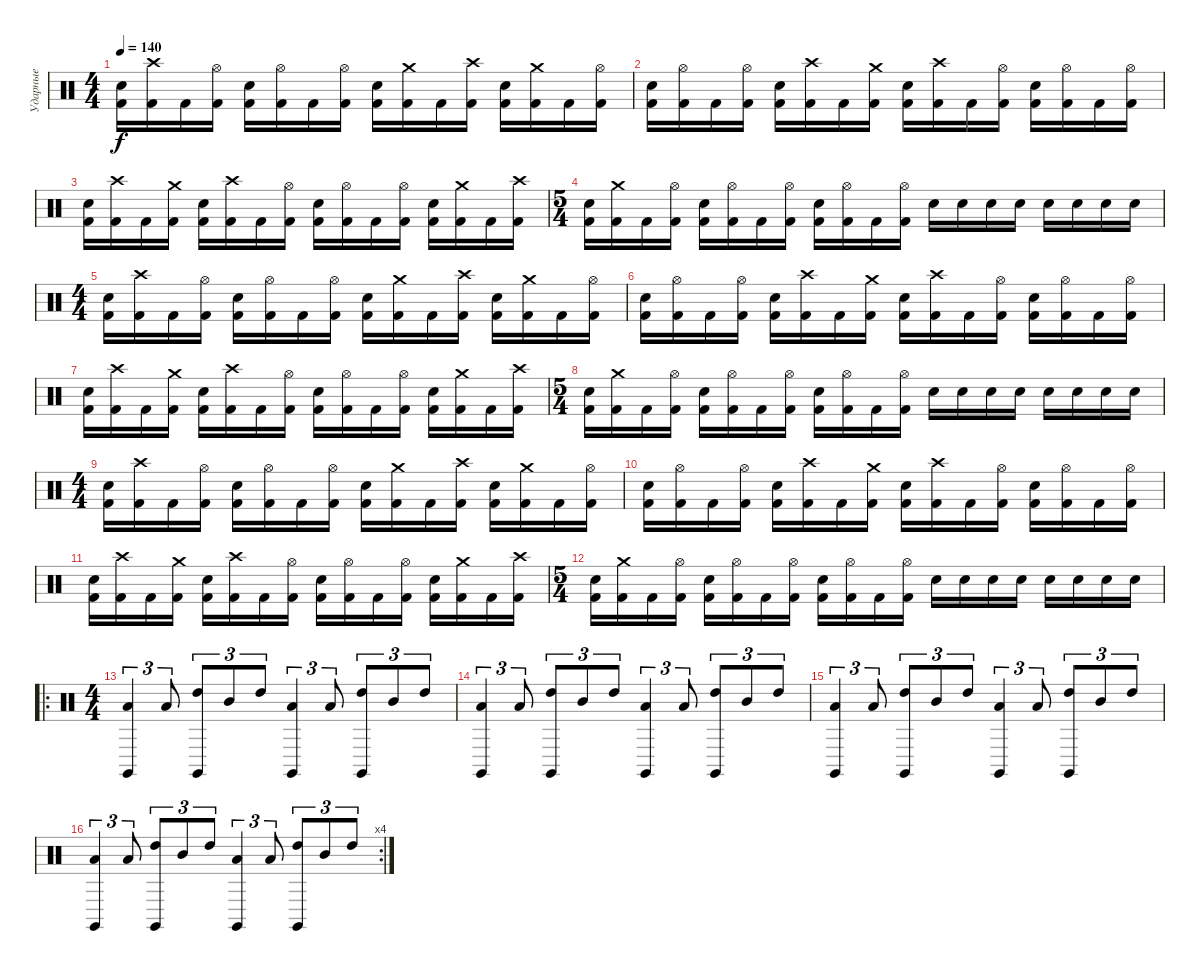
\track ("Ударные" "Ударные") {instrument percussion}
\staff {score}
\articulation defaults
\ts (4 4)
\tempo 140
\clef neutral
\ks c
("Electric Snare (hit)" "Kick (hit) 2").16{dy f} ("Crash high (hit)" "Kick (hit) 2").16 "Kick (hit) 2".16 ("Hi-Hat (open)" "Kick (hit) 2").16 ("Electric Snare (hit)" "Kick (hit) 2").16 ("Hi-Hat (open)" "Kick (hit) 2").16 "Kick (hit) 2".16 ("Hi-Hat (open)" "Kick (hit) 2").16 ("Electric Snare (hit)" "Kick (hit) 2").16 ("Crash medium (hit)" "Kick (hit) 2").16 "Kick (hit) 2".16 ("Crash high (hit)" "Kick (hit) 2").16 ("Electric Snare (hit)" "Kick (hit) 2").16 ("Crash medium (hit)" "Kick (hit) 2").16 "Kick (hit) 2".16 ("Hi-Hat (open)" "Kick (hit) 2").16 |
("Electric Snare (hit)" "Kick (hit) 2").16 ("Hi-Hat (open)" "Kick (hit) 2").16 "Kick (hit) 2".16 ("Hi-Hat (open)" "Kick (hit) 2").16 ("Electric Snare (hit)" "Kick (hit) 2").16 ("Crash high (hit)" "Kick (hit) 2").16 "Kick (hit) 2".16 ("Crash medium (hit)" "Kick (hit) 2").16 ("Electric Snare (hit)" "Kick (hit) 2").16 ("Crash high (hit)" "Kick (hit) 2").16 "Kick (hit) 2".16 ("Hi-Hat (open)" "Kick (hit) 2").16 ("Electric Snare (hit)" "Kick (hit) 2").16 ("Hi-Hat (open)" "Kick (hit) 2").16 "Kick (hit) 2".16 ("Hi-Hat (open)" "Kick (hit) 2").16 |
("Electric Snare (hit)" "Kick (hit) 2").16 ("Crash high (hit)" "Kick (hit) 2").16 "Kick (hit) 2".16 ("Crash medium (hit)" "Kick (hit) 2").16 ("Electric Snare (hit)" "Kick (hit) 2").16 ("Crash high (hit)" "Kick (hit) 2").16 "Kick (hit) 2".16 ("Hi-Hat (open)" "Kick (hit) 2").16 ("Electric Snare (hit)" "Kick (hit) 2").16 ("Hi-Hat (open)" "Kick (hit) 2").16 "Kick (hit) 2".16 ("Hi-Hat (open)" "Kick (hit) 2").16 ("Electric Snare (hit)" "Kick (hit) 2").16 ("Crash medium (hit)" "Kick (hit) 2").16 "Kick (hit) 2".16 ("Crash high (hit)" "Kick (hit) 2").16 |
\ts (5 4)
("Electric Snare (hit)" "Kick (hit) 2").16 ("Crash medium (hit)" "Kick (hit) 2").16 "Kick (hit) 2".16 ("Hi-Hat (open)" "Kick (hit) 2").16 ("Electric Snare (hit)" "Kick (hit) 2").16 ("Hi-Hat (open)" "Kick (hit) 2").16 "Kick (hit) 2".16 ("Hi-Hat (open)" "Kick (hit) 2").16 ("Electric Snare (hit)" "Kick (hit) 2").16 ("Hi-Hat (open)" "Kick (hit) 2").16 "Kick (hit) 2".16 ("Hi-Hat (open)" "Kick (hit) 2").16 "Electric Snare (hit)".16 "Electric Snare (hit)".16 "Electric Snare (hit)".16 "Electric Snare (hit)".16 "Electric Snare (hit)".16 "Electric Snare (hit)".16 "Electric Snare (hit)".16 "Electric Snare (hit)".16 |
\ts (4 4)
("Electric Snare (hit)" "Kick (hit) 2").16 ("Crash high (hit)" "Kick (hit) 2").16 "Kick (hit) 2".16 ("Hi-Hat (open)" "Kick (hit) 2").16 ("Electric Snare (hit)" "Kick (hit) 2").16 ("Hi-Hat (open)" "Kick (hit) 2").16 "Kick (hit) 2".16 ("Hi-Hat (open)" "Kick (hit) 2").16 ("Electric Snare (hit)" "Kick (hit) 2").16 ("Crash medium (hit)" "Kick (hit) 2").16 "Kick (hit) 2".16 ("Crash high (hit)" "Kick (hit) 2").16 ("Electric Snare (hit)" "Kick (hit) 2").16 ("Crash medium (hit)" "Kick (hit) 2").16 "Kick (hit) 2".16 ("Hi-Hat (open)" "Kick (hit) 2").16 |
("Electric Snare (hit)" "Kick (hit) 2").16 ("Hi-Hat (open)" "Kick (hit) 2").16 "Kick (hit) 2".16 ("Hi-Hat (open)" "Kick (hit) 2").16 ("Electric Snare (hit)" "Kick (hit) 2").16 ("Crash high (hit)" "Kick (hit) 2").16 "Kick (hit) 2".16 ("Crash medium (hit)" "Kick (hit) 2").16 ("Electric Snare (hit)" "Kick (hit) 2").16 ("Crash high (hit)" "Kick (hit) 2").16 "Kick (hit) 2".16 ("Hi-Hat (open)" "Kick (hit) 2").16 ("Electric Snare (hit)" "Kick (hit) 2").16 ("Hi-Hat (open)" "Kick (hit) 2").16 "Kick (hit) 2".16 ("Hi-Hat (open)" "Kick (hit) 2").16 |
("Electric Snare (hit)" "Kick (hit) 2").16 ("Crash high (hit)" "Kick (hit) 2").16 "Kick (hit) 2".16 ("Crash medium (hit)" "Kick (hit) 2").16 ("Electric Snare (hit)" "Kick (hit) 2").16 ("Crash high (hit)" "Kick (hit) 2").16 "Kick (hit) 2".16 ("Hi-Hat (open)" "Kick (hit) 2").16 ("Electric Snare (hit)" "Kick (hit) 2").16 ("Hi-Hat (open)" "Kick (hit) 2").16 "Kick (hit) 2".16 ("Hi-Hat (open)" "Kick (hit) 2").16 ("Electric Snare (hit)" "Kick (hit) 2").16 ("Crash medium (hit)" "Kick (hit) 2").16 "Kick (hit) 2".16 ("Crash high (hit)" "Kick (hit) 2").16 |
\ts (5 4)
("Electric Snare (hit)" "Kick (hit) 2").16 ("Crash medium (hit)" "Kick (hit) 2").16 "Kick (hit) 2".16 ("Hi-Hat (open)" "Kick (hit) 2").16 ("Electric Snare (hit)" "Kick (hit) 2").16 ("Hi-Hat (open)" "Kick (hit) 2").16 "Kick (hit) 2".16 ("Hi-Hat (open)" "Kick (hit) 2").16 ("Electric Snare (hit)" "Kick (hit) 2").16 ("Hi-Hat (open)" "Kick (hit) 2").16 "Kick (hit) 2".16 ("Hi-Hat (open)" "Kick (hit) 2").16 "Electric Snare (hit)".16 "Electric Snare (hit)".16 "Electric Snare (hit)".16 "Electric Snare (hit)".16 "Electric Snare (hit)".16 "Electric Snare (hit)".16 "Electric Snare (hit)".16 "Electric Snare (hit)".16 |
\ts (4 4)
("Electric Snare (hit)" "Kick (hit) 2").16 ("Crash high (hit)" "Kick (hit) 2").16 "Kick (hit) 2".16 ("Hi-Hat (open)" "Kick (hit) 2").16 ("Electric Snare (hit)" "Kick (hit) 2").16 ("Hi-Hat (open)" "Kick (hit) 2").16 "Kick (hit) 2".16 ("Hi-Hat (open)" "Kick (hit) 2").16 ("Electric Snare (hit)" "Kick (hit) 2").16 ("Crash medium (hit)" "Kick (hit) 2").16 "Kick (hit) 2".16 ("Crash high (hit)" "Kick (hit) 2").16 ("Electric Snare (hit)" "Kick (hit) 2").16 ("Crash medium (hit)" "Kick (hit) 2").16 "Kick (hit) 2".16 ("Hi-Hat (open)" "Kick (hit) 2").16 |
("Electric Snare (hit)" "Kick (hit) 2").16 ("Hi-Hat (open)" "Kick (hit) 2").16 "Kick (hit) 2".16 ("Hi-Hat (open)" "Kick (hit) 2").16 ("Electric Snare (hit)" "Kick (hit) 2").16 ("Crash high (hit)" "Kick (hit) 2").16 "Kick (hit) 2".16 ("Crash medium (hit)" "Kick (hit) 2").16 ("Electric Snare (hit)" "Kick (hit) 2").16 ("Crash high (hit)" "Kick (hit) 2").16 "Kick (hit) 2".16 ("Hi-Hat (open)" "Kick (hit) 2").16 ("Electric Snare (hit)" "Kick (hit) 2").16 ("Hi-Hat (open)" "Kick (hit) 2").16 "Kick (hit) 2".16 ("Hi-Hat (open)" "Kick (hit) 2").16 |
("Electric Snare (hit)" "Kick (hit) 2").16 ("Crash high (hit)" "Kick (hit) 2").16 "Kick (hit) 2".16 ("Crash medium (hit)" "Kick (hit) 2").16 ("Electric Snare (hit)" "Kick (hit) 2").16 ("Crash high (hit)" "Kick (hit) 2").16 "Kick (hit) 2".16 ("Hi-Hat (open)" "Kick (hit) 2").16 ("Electric Snare (hit)" "Kick (hit) 2").16 ("Hi-Hat (open)" "Kick (hit) 2").16 "Kick (hit) 2".16 ("Hi-Hat (open)" "Kick (hit) 2").16 ("Electric Snare (hit)" "Kick (hit) 2").16 ("Crash medium (hit)" "Kick (hit) 2").16 "Kick (hit) 2".16 ("Crash high (hit)" "Kick (hit) 2").16 |
\ts (5 4)
("Electric Snare (hit)" "Kick (hit) 2").16 ("Crash medium (hit)" "Kick (hit) 2").16 "Kick (hit) 2".16 ("Hi-Hat (open)" "Kick (hit) 2").16 ("Electric Snare (hit)" "Kick (hit) 2").16 ("Hi-Hat (open)" "Kick (hit) 2").16 "Kick (hit) 2".16 ("Hi-Hat (open)" "Kick (hit) 2").16 ("Electric Snare (hit)" "Kick (hit) 2").16 ("Hi-Hat (open)" "Kick (hit) 2").16 "Kick (hit) 2".16 ("Hi-Hat (open)" "Kick (hit) 2").16 "Electric Snare (hit)".16 "Electric Snare (hit)".16 "Electric Snare (hit)".16 "Electric Snare (hit)".16 "Electric Snare (hit)".16 "Electric Snare (hit)".16 "Electric Snare (hit)".16 "Electric Snare (hit)".16 |
\ro
\ts (4 4)
("Claves (hit)" "Low Tom (hit)").4{tu (3 2)} "Low Tom (hit)".8{tu (3 2)} ("Claves (hit)" "High Tom (hit)").8{tu (3 2)} "Mid Tom (hit)".8{tu (3 2)} "High Tom (hit)".8{tu (3 2)} ("Claves (hit)" "Low Tom (hit)").4{tu (3 2)} "Low Tom (hit)".8{tu (3 2)} ("Claves (hit)" "High Tom (hit)").8{tu (3 2)} "Mid Tom (hit)".8{tu (3 2)} "High Tom (hit)".8{tu (3 2)} |
("Claves (hit)" "Low Tom (hit)").4{tu (3 2)} "Low Tom (hit)".8{tu (3 2)} ("Claves (hit)" "High Tom (hit)").8{tu (3 2)} "Mid Tom (hit)".8{tu (3 2)} "High Tom (hit)".8{tu (3 2)} ("Claves (hit)" "Low Tom (hit)").4{tu (3 2)} "Low Tom (hit)".8{tu (3 2)} ("Claves (hit)" "High Tom (hit)").8{tu (3 2)} "Mid Tom (hit)".8{tu (3 2)} "High Tom (hit)".8{tu (3 2)} |
("Claves (hit)" "Low Tom (hit)").4{tu (3 2)} "Low Tom (hit)".8{tu (3 2)} ("Claves (hit)" "High Tom (hit)").8{tu (3 2)} "Mid Tom (hit)".8{tu (3 2)} "High Tom (hit)".8{tu (3 2)} ("Claves (hit)" "Low Tom (hit)").4{tu (3 2)} "Low Tom (hit)".8{tu (3 2)} ("Claves (hit)" "High Tom (hit)").8{tu (3 2)} "Mid Tom (hit)".8{tu (3 2)} "High Tom (hit)".8{tu (3 2)} |
\rc 4
("Claves (hit)" "Low Tom (hit)").4{tu (3 2)} "Low Tom (hit)".8{tu (3 2)} ("Claves (hit)" "High Tom (hit)").8{tu (3 2)} "Mid Tom (hit)".8{tu (3 2)} "High Tom (hit)".8{tu (3 2)} ("Claves (hit)" "Low Tom (hit)").4{tu (3 2)} "Low Tom (hit)".8{tu (3 2)} ("Claves (hit)" "High Tom (hit)").8{tu (3 2)} "Mid Tom (hit)".8{tu (3 2)} "High Tom (hit)".8{tu (3 2)}
